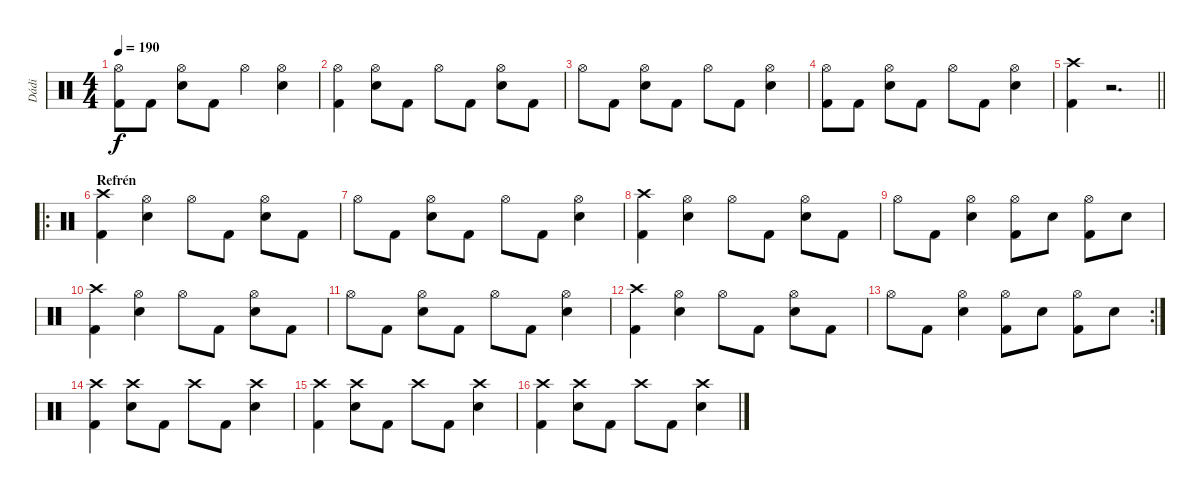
\track ("Dádi" "Dádi") {instrument percussion}
\staff {score}
\articulation defaults
\ts (4 4)
\tempo 190
\clef neutral
\ks c
("Kick (hit) 2" "Hi-Hat (open)").8{dy f} "Kick (hit) 2".8 ("Hi-Hat (open)" "Electric Snare (hit)").8 "Kick (hit) 2".8 "Hi-Hat (open)".4 ("Electric Snare (hit)" "Hi-Hat (open)").4 |
("Kick (hit) 2" "Hi-Hat (open)").4 ("Electric Snare (hit)" "Hi-Hat (open)").8 "Kick (hit) 2".8 "Hi-Hat (open)".8 "Kick (hit) 2".8 ("Electric Snare (hit)" "Hi-Hat (open)").8 "Kick (hit) 2".8 |
"Hi-Hat (open)".8 "Kick (hit) 2".8 ("Hi-Hat (open)" "Electric Snare (hit)").8 "Kick (hit) 2".8 "Hi-Hat (open)".8 "Kick (hit) 2".8 ("Hi-Hat (open)" "Electric Snare (hit)").4 |
("Kick (hit) 2" "Hi-Hat (open)").8 "Kick (hit) 2".8 ("Electric Snare (hit)" "Hi-Hat (open)").8 "Kick (hit) 2".8 "Hi-Hat (open)".8 "Kick (hit) 2".8 ("Hi-Hat (open)" "Electric Snare (hit)").4 |
\barLineRight lightlight
("Kick (hit) 2" "Crash high (hit)").4 r.2{d} |
\ro
\section ("" "Refrén")
("Kick (hit) 2" "Crash high (hit)").4 ("Hi-Hat (open)" "Electric Snare (hit)").4 "Hi-Hat (open)".8 "Kick (hit) 2".8 ("Electric Snare (hit)" "Hi-Hat (open)").8 "Kick (hit) 2".8 |
"Hi-Hat (open)".8 "Kick (hit) 2".8 ("Electric Snare (hit)" "Hi-Hat (open)").8 "Kick (hit) 2".8 "Hi-Hat (open)".8 "Kick (hit) 2".8 ("Electric Snare (hit)" "Hi-Hat (open)").4 |
("Crash high (hit)" "Kick (hit) 2").4 ("Hi-Hat (open)" "Electric Snare (hit)").4 "Hi-Hat (open)".8 "Kick (hit) 2".8 ("Hi-Hat (open)" "Electric Snare (hit)").8 "Kick (hit) 2".8 |
"Hi-Hat (open)".8 "Kick (hit) 2".8 ("Hi-Hat (open)" "Electric Snare (hit)").4 ("Hi-Hat (open)" "Kick (hit) 2").8 "Electric Snare (hit)".8 ("Hi-Hat (open)" "Kick (hit) 2").8 "Electric Snare (hit)".8 |
("Crash high (hit)" "Kick (hit) 2").4 ("Hi-Hat (open)" "Electric Snare (hit)").4 "Hi-Hat (open)".8 "Kick (hit) 2".8 ("Hi-Hat (open)" "Electric Snare (hit)").8 "Kick (hit) 2".8 |
"Hi-Hat (open)".8 "Kick (hit) 2".8 ("Hi-Hat (open)" "Electric Snare (hit)").8 "Kick (hit) 2".8 "Hi-Hat (open)".8 "Kick (hit) 2".8 ("Hi-Hat (open)" "Electric Snare (hit)").4 |
("Kick (hit) 2" "Crash high (hit)").4 ("Hi-Hat (open)" "Electric Snare (hit)").4 "Hi-Hat (open)".8 "Kick (hit) 2".8 ("Hi-Hat (open)" "Electric Snare (hit)").8 "Kick (hit) 2".8 |
\rc 2 "Hi-Hat (open)".8 "Kick (hit) 2".8
("Hi-Hat (open)" "Electric Snare (hit)").4 ("Hi-Hat (open)" "Kick (hit) 2").8 "Electric Snare (hit)".8 ("Hi-Hat (open)" "Kick (hit) 2").8 "Electric Snare (hit)".8 |
("Kick (hit) 2" "Crash high (hit)").4 ("Electric Snare (hit)" "Crash high (hit)").8 "Kick (hit) 2".8 "Crash high (hit)".8 "Kick (hit) 2".8 ("Crash high (hit)" "Electric Snare (hit)").4 |
("Kick (hit) 2" "Crash high (hit)").4 ("Electric Snare (hit)" "Crash high (hit)").8 "Kick (hit) 2".8 "Crash high (hit)".8 "Kick (hit) 2".8 ("Crash high (hit)" "Electric Snare (hit)").4 |
("Kick (hit) 2" "Crash high (hit)").4 ("Crash high (hit)" "Electric Snare (hit)").8 "Kick (hit) 2".8 "Crash high (hit)".8 "Kick (hit) 2".8 ("Crash high (hit)" "Electric Snare (hit)").4
